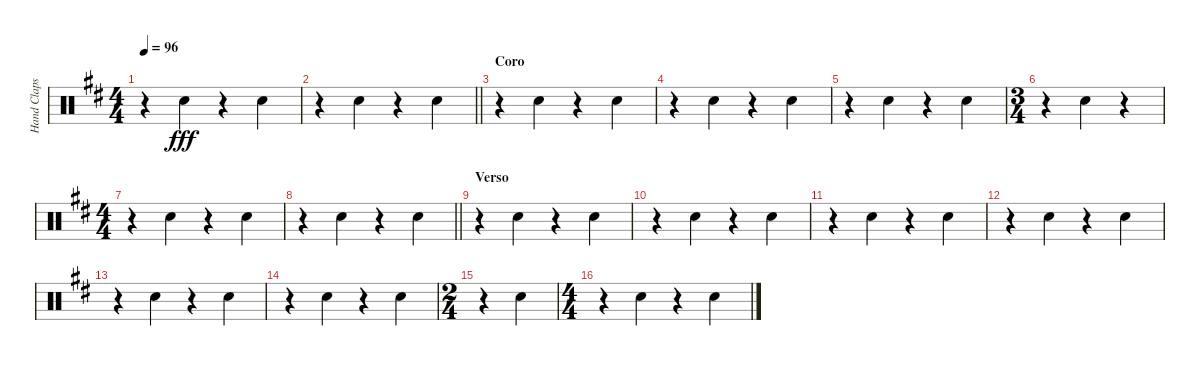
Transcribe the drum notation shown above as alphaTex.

\track ("Hand Claps" "Hand Claps") {instrument percussion}
\staff {score}
\articulation defaults
\ts (4 4)
\tempo 96
\clef neutral
\ks d
r.4{dy fff} "Hand Clap (hit)".4 r.4 "Hand Clap (hit)".4 |
\barLineRight lightlight
r.4 "Hand Clap (hit)".4 r.4 "Hand Clap (hit)".4 |
\section ("" "Coro")
r.4 "Hand Clap (hit)".4 r.4 "Hand Clap (hit)".4 |
r.4 "Hand Clap (hit)".4 r.4 "Hand Clap (hit)".4 |
r.4 "Hand Clap (hit)".4 r.4 "Hand Clap (hit)".4 |
\ts (3 4)
r.4 "Hand Clap (hit)".4 r.4 |
\ts (4 4)
r.4 "Hand Clap (hit)".4 r.4 "Hand Clap (hit)".4 |
\barLineRight lightlight
r.4 "Hand Clap (hit)".4 r.4 "Hand Clap (hit)".4 |
\section ("" "Verso")
r.4 "Hand Clap (hit)".4 r.4 "Hand Clap (hit)".4 |
r.4 "Hand Clap (hit)".4 r.4 "Hand Clap (hit)".4 |
r.4 "Hand Clap (hit)".4 r.4 "Hand Clap (hit)".4 |
r.4 "Hand Clap (hit)".4 r.4 "Hand Clap (hit)".4 |
r.4 "Hand Clap (hit)".4 r.4 "Hand Clap (hit)".4 |
r.4 "Hand Clap (hit)".4 r.4 "Hand Clap (hit)".4 |
\ts (2 4)
r.4 "Hand Clap (hit)".4 |
\ts (4 4)
r.4 "Hand Clap (hit)".4 r.4 "Hand Clap (hit)".4
